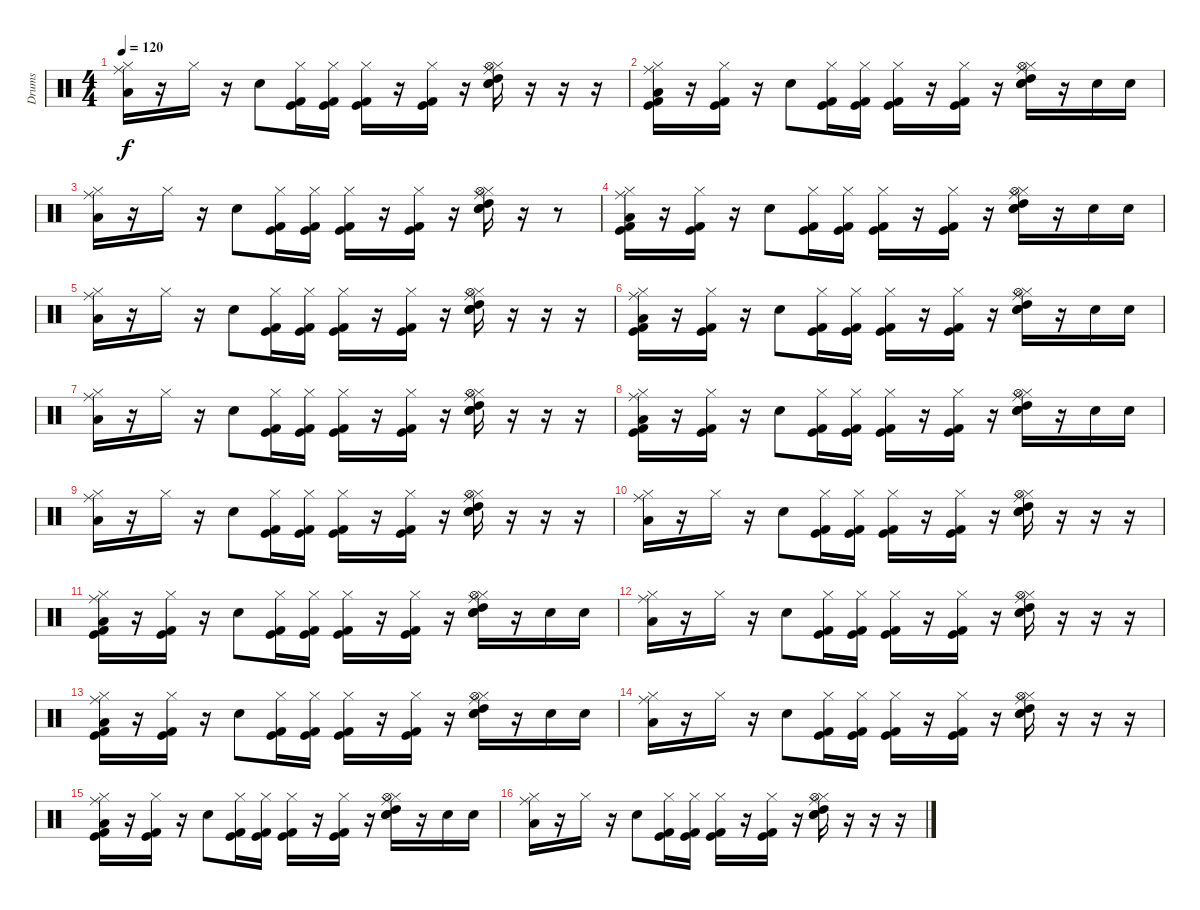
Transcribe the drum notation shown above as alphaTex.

\track ("Drums" "Drums") {instrument percussion}
\staff {score}
\articulation defaults
\ts (4 4)
\tempo 120
\clef neutral
\ks c
("Low Tom (hit)" "Hi-Hat (closed)" "Ride (middle)").16{dy f} r.16 "Hi-Hat (closed)".16 r.16 "Snare (hit) 2".8 ("Kick (hit)" "Hi-Hat (closed)" "Kick (hit) 2").16 ("Kick (hit)" "Hi-Hat (closed)" "Kick (hit) 2").16 ("Kick (hit)" "Hi-Hat (closed)" "Kick (hit) 2").16 r.16 ("Kick (hit)" "Hi-Hat (closed)" "Kick (hit) 2").16 r.16 ("Snare (hit) 2" "Ride (middle)" "Hi-Hat (closed)" "Hi-Hat (open)" "High Tom (hit)" "Electric Snare (hit)").16 r.16 r.16 r.16 |
("Kick (hit)" "Hi-Hat (closed)" "Ride (middle)" "Low Tom (hit)" "Kick (hit) 2").16 r.16 ("Kick (hit)" "Hi-Hat (closed)" "Kick (hit) 2").16 r.16 "Snare (hit) 2".8 ("Kick (hit)" "Hi-Hat (closed)" "Kick (hit) 2").16 ("Kick (hit)" "Hi-Hat (closed)" "Kick (hit) 2").16 ("Kick (hit)" "Hi-Hat (closed)" "Kick (hit) 2").16 r.16 ("Kick (hit)" "Hi-Hat (closed)" "Kick (hit) 2").16 r.16 ("Snare (hit) 2" "Ride (middle)" "Hi-Hat (closed)" "Hi-Hat (open)" "High Tom (hit)" "Electric Snare (hit)").16 r.16 "Electric Snare (hit)".16 "Electric Snare (hit)".16 |
("Hi-Hat (closed)" "Ride (middle)" "Low Tom (hit)").16 r.16 "Hi-Hat (closed)".16 r.16 "Snare (hit) 2".8 ("Kick (hit)" "Hi-Hat (closed)" "Kick (hit) 2").16 ("Kick (hit)" "Hi-Hat (closed)" "Kick (hit) 2").16 ("Kick (hit)" "Hi-Hat (closed)" "Kick (hit) 2").16 r.16 ("Kick (hit)" "Hi-Hat (closed)" "Kick (hit) 2").16 r.16 ("Snare (hit) 2" "Ride (middle)" "Hi-Hat (closed)" "Hi-Hat (open)" "High Tom (hit)" "Electric Snare (hit)").16 r.16 r.8 |
("Kick (hit)" "Hi-Hat (closed)" "Ride (middle)" "Low Tom (hit)" "Kick (hit) 2").16 r.16 ("Kick (hit)" "Hi-Hat (closed)" "Kick (hit) 2").16 r.16 "Snare (hit) 2".8 ("Kick (hit)" "Hi-Hat (closed)" "Kick (hit) 2").16 ("Kick (hit)" "Hi-Hat (closed)" "Kick (hit) 2").16 ("Kick (hit)" "Hi-Hat (closed)" "Kick (hit) 2").16 r.16 ("Kick (hit)" "Hi-Hat (closed)" "Kick (hit) 2").16 r.16 ("Snare (hit) 2" "Ride (middle)" "Hi-Hat (closed)" "Hi-Hat (open)" "High Tom (hit)" "Electric Snare (hit)").16 r.16 "Electric Snare (hit)".16 "Electric Snare (hit)".16 |
("Hi-Hat (closed)" "Ride (middle)" "Low Tom (hit)").16 r.16 "Hi-Hat (closed)".16 r.16 "Snare (hit) 2".8 ("Kick (hit)" "Hi-Hat (closed)" "Kick (hit) 2").16 ("Kick (hit)" "Hi-Hat (closed)" "Kick (hit) 2").16 ("Kick (hit)" "Hi-Hat (closed)" "Kick (hit) 2").16 r.16 ("Kick (hit)" "Hi-Hat (closed)" "Kick (hit) 2").16 r.16 ("Snare (hit) 2" "Ride (middle)" "Hi-Hat (closed)" "Hi-Hat (open)" "High Tom (hit)" "Electric Snare (hit)").16 r.16 r.16 r.16 |
("Kick (hit)" "Hi-Hat (closed)" "Ride (middle)" "Low Tom (hit)" "Kick (hit) 2").16 r.16 ("Kick (hit)" "Hi-Hat (closed)" "Kick (hit) 2").16 r.16 "Snare (hit) 2".8 ("Kick (hit)" "Hi-Hat (closed)" "Kick (hit) 2").16 ("Kick (hit)" "Hi-Hat (closed)" "Kick (hit) 2").16 ("Kick (hit)" "Hi-Hat (closed)" "Kick (hit) 2").16 r.16 ("Kick (hit)" "Hi-Hat (closed)" "Kick (hit) 2").16 r.16 ("Snare (hit) 2" "Ride (middle)" "Hi-Hat (closed)" "Hi-Hat (open)" "High Tom (hit)" "Electric Snare (hit)").16 r.16 "Electric Snare (hit)".16 "Electric Snare (hit)".16 |
("Hi-Hat (closed)" "Ride (middle)" "Low Tom (hit)").16 r.16 "Hi-Hat (closed)".16 r.16 "Snare (hit) 2".8 ("Kick (hit)" "Hi-Hat (closed)" "Kick (hit) 2").16 ("Kick (hit)" "Hi-Hat (closed)" "Kick (hit) 2").16 ("Kick (hit)" "Hi-Hat (closed)" "Kick (hit) 2").16 r.16 ("Kick (hit)" "Hi-Hat (closed)" "Kick (hit) 2").16 r.16 ("Snare (hit) 2" "Ride (middle)" "Hi-Hat (closed)" "Hi-Hat (open)" "High Tom (hit)" "Electric Snare (hit)").16 r.16 r.16 r.16 |
("Kick (hit)" "Hi-Hat (closed)" "Ride (middle)" "Low Tom (hit)" "Kick (hit) 2").16 r.16 ("Kick (hit)" "Hi-Hat (closed)" "Kick (hit) 2").16 r.16 "Snare (hit) 2".8 ("Kick (hit)" "Hi-Hat (closed)" "Kick (hit) 2").16 ("Kick (hit)" "Hi-Hat (closed)" "Kick (hit) 2").16 ("Kick (hit)" "Hi-Hat (closed)" "Kick (hit) 2").16 r.16 ("Kick (hit)" "Hi-Hat (closed)" "Kick (hit) 2").16 r.16 ("Snare (hit) 2" "Ride (middle)" "Hi-Hat (closed)" "Hi-Hat (open)" "High Tom (hit)" "Electric Snare (hit)").16 r.16 "Electric Snare (hit)".16 "Electric Snare (hit)".16 |
("Hi-Hat (closed)" "Ride (middle)" "Low Tom (hit)").16 r.16 "Hi-Hat (closed)".16 r.16 "Snare (hit) 2".8 ("Kick (hit)" "Hi-Hat (closed)" "Kick (hit) 2").16 ("Kick (hit)" "Hi-Hat (closed)" "Kick (hit) 2").16 ("Kick (hit)" "Hi-Hat (closed)" "Kick (hit) 2").16 r.16 ("Kick (hit)" "Hi-Hat (closed)" "Kick (hit) 2").16 r.16 ("Snare (hit) 2" "Ride (middle)" "Hi-Hat (closed)" "Hi-Hat (open)" "High Tom (hit)" "Electric Snare (hit)").16 r.16 r.16 r.16 |
("Hi-Hat (closed)" "Ride (middle)" "Low Tom (hit)").16 r.16 "Hi-Hat (closed)".16 r.16 "Snare (hit) 2".8 ("Kick (hit)" "Hi-Hat (closed)" "Kick (hit) 2").16 ("Kick (hit)" "Hi-Hat (closed)" "Kick (hit) 2").16 ("Kick (hit)" "Hi-Hat (closed)" "Kick (hit) 2").16 r.16 ("Kick (hit)" "Hi-Hat (closed)" "Kick (hit) 2").16 r.16 ("Snare (hit) 2" "Ride (middle)" "Hi-Hat (closed)" "Hi-Hat (open)" "High Tom (hit)" "Electric Snare (hit)").16 r.16 r.16 r.16 |
("Kick (hit)" "Hi-Hat (closed)" "Ride (middle)" "Low Tom (hit)" "Kick (hit) 2").16 r.16 ("Kick (hit)" "Hi-Hat (closed)" "Kick (hit) 2").16 r.16 "Snare (hit) 2".8 ("Kick (hit)" "Hi-Hat (closed)" "Kick (hit) 2").16 ("Kick (hit)" "Hi-Hat (closed)" "Kick (hit) 2").16 ("Kick (hit)" "Hi-Hat (closed)" "Kick (hit) 2").16 r.16 ("Kick (hit)" "Hi-Hat (closed)" "Kick (hit) 2").16 r.16 ("Snare (hit) 2" "Ride (middle)" "Hi-Hat (closed)" "Hi-Hat (open)" "High Tom (hit)" "Electric Snare (hit)").16 r.16 "Electric Snare (hit)".16 "Electric Snare (hit)".16 |
("Hi-Hat (closed)" "Ride (middle)" "Low Tom (hit)").16 r.16 "Hi-Hat (closed)".16 r.16 "Snare (hit) 2".8 ("Kick (hit)" "Hi-Hat (closed)" "Kick (hit) 2").16 ("Kick (hit)" "Hi-Hat (closed)" "Kick (hit) 2").16 ("Kick (hit)" "Hi-Hat (closed)" "Kick (hit) 2").16 r.16 ("Kick (hit)" "Hi-Hat (closed)" "Kick (hit) 2").16 r.16 ("Snare (hit) 2" "Ride (middle)" "Hi-Hat (closed)" "Hi-Hat (open)" "High Tom (hit)" "Electric Snare (hit)").16 r.16 r.16 r.16 |
("Kick (hit)" "Hi-Hat (closed)" "Ride (middle)" "Low Tom (hit)" "Kick (hit) 2").16 r.16 ("Kick (hit)" "Hi-Hat (closed)" "Kick (hit) 2").16 r.16 "Snare (hit) 2".8 ("Kick (hit)" "Hi-Hat (closed)" "Kick (hit) 2").16 ("Kick (hit)" "Hi-Hat (closed)" "Kick (hit) 2").16 ("Kick (hit)" "Hi-Hat (closed)" "Kick (hit) 2").16 r.16 ("Kick (hit)" "Hi-Hat (closed)" "Kick (hit) 2").16 r.16 ("Snare (hit) 2" "Ride (middle)" "Hi-Hat (closed)" "Hi-Hat (open)" "High Tom (hit)" "Electric Snare (hit)").16 r.16 "Electric Snare (hit)".16 "Electric Snare (hit)".16 |
("Hi-Hat (closed)" "Ride (middle)" "Low Tom (hit)").16 r.16 "Hi-Hat (closed)".16 r.16 "Snare (hit) 2".8 ("Kick (hit)" "Hi-Hat (closed)" "Kick (hit) 2").16 ("Kick (hit)" "Hi-Hat (closed)" "Kick (hit) 2").16 ("Kick (hit)" "Hi-Hat (closed)" "Kick (hit) 2").16 r.16 ("Kick (hit)" "Hi-Hat (closed)" "Kick (hit) 2").16 r.16 ("Snare (hit) 2" "Ride (middle)" "Hi-Hat (closed)" "Hi-Hat (open)" "High Tom (hit)" "Electric Snare (hit)").16 r.16 r.16 r.16 |
("Kick (hit)" "Hi-Hat (closed)" "Ride (middle)" "Low Tom (hit)" "Kick (hit) 2").16 r.16 ("Kick (hit)" "Hi-Hat (closed)" "Kick (hit) 2").16 r.16 "Snare (hit) 2".8 ("Kick (hit)" "Hi-Hat (closed)" "Kick (hit) 2").16 ("Kick (hit)" "Hi-Hat (closed)" "Kick (hit) 2").16 ("Kick (hit)" "Hi-Hat (closed)" "Kick (hit) 2").16 r.16 ("Kick (hit)" "Hi-Hat (closed)" "Kick (hit) 2").16 r.16 ("Snare (hit) 2" "Ride (middle)" "Hi-Hat (closed)" "Hi-Hat (open)" "High Tom (hit)" "Electric Snare (hit)").16 r.16 "Electric Snare (hit)".16 "Electric Snare (hit)".16 |
("Hi-Hat (closed)" "Ride (middle)" "Low Tom (hit)").16 r.16 "Hi-Hat (closed)".16 r.16 "Snare (hit) 2".8 ("Kick (hit)" "Hi-Hat (closed)" "Kick (hit) 2").16 ("Kick (hit)" "Hi-Hat (closed)" "Kick (hit) 2").16 ("Kick (hit)" "Hi-Hat (closed)" "Kick (hit) 2").16 r.16 ("Kick (hit)" "Hi-Hat (closed)" "Kick (hit) 2").16 r.16 ("Snare (hit) 2" "Ride (middle)" "Hi-Hat (closed)" "Hi-Hat (open)" "High Tom (hit)" "Electric Snare (hit)").16 r.16 r.16 r.16
